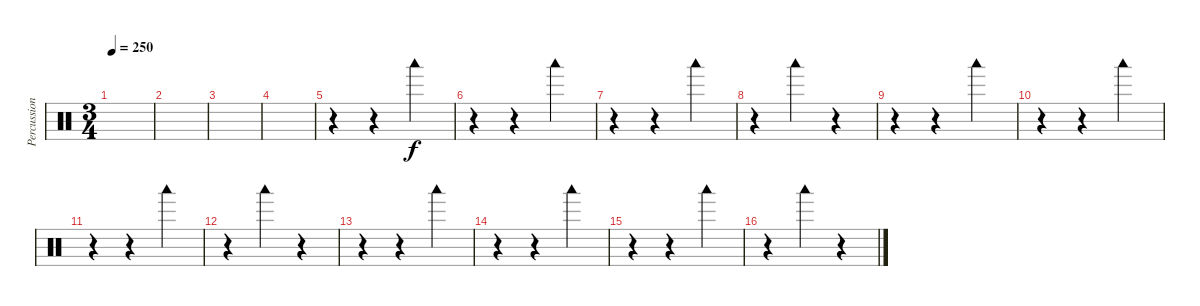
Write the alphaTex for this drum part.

\track ("Percussion" "Percussion") {instrument percussion}
\staff {score}
\articulation defaults
\ts (3 4)
\tempo 250
\clef neutral
\ks c
|
|
|
|
r.4 r.4 "Woodblock low (hit)".4 |
r.4 r.4 "Woodblock low (hit)".4 |
r.4 r.4 "Woodblock low (hit)".4 |
r.4 "Woodblock low (hit)".4 r.4 |
r.4 r.4 "Woodblock low (hit)".4 |
r.4 r.4 "Woodblock low (hit)".4 |
r.4 r.4 "Woodblock low (hit)".4 |
r.4 "Woodblock low (hit)".4 r.4 |
r.4 r.4 "Woodblock low (hit)".4 |
r.4 r.4 "Woodblock low (hit)".4 |
r.4 r.4 "Woodblock low (hit)".4 |
r.4 "Woodblock low (hit)".4 r.4
